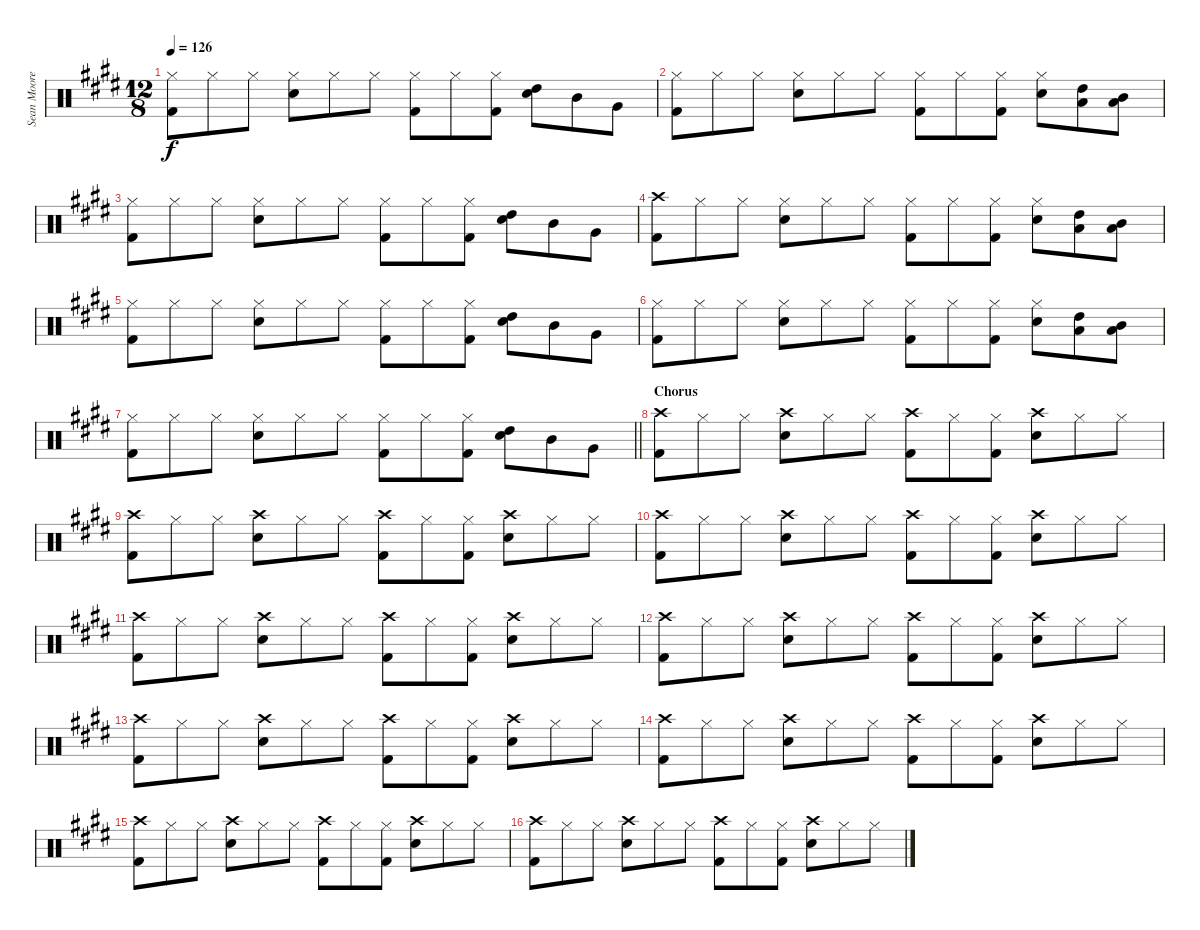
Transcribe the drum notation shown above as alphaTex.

\track ("Sean Moore (Drums)" "Sean Moore") {instrument percussion}
\staff {score}
\articulation defaults
\ts (12 8)
\tempo 126
\clef neutral
\ks e
("Hi-Hat (closed)" "Kick (hit) 2").8{dy f} "Hi-Hat (closed)".8 "Hi-Hat (closed)".8 ("Hi-Hat (closed)" "Electric Snare (hit)").8 "Hi-Hat (closed)".8 "Hi-Hat (closed)".8 ("Hi-Hat (closed)" "Kick (hit) 2").8 "Hi-Hat (closed)".8 ("Hi-Hat (closed)" "Kick (hit) 2").8 ("Electric Snare (hit)" "High Tom (hit)").8 "Mid Tom (hit)".8 "Very Low Tom (hit)".8 |
("Hi-Hat (closed)" "Kick (hit) 2").8 "Hi-Hat (closed)".8 "Hi-Hat (closed)".8 ("Hi-Hat (closed)" "Electric Snare (hit)").8 "Hi-Hat (closed)".8 "Hi-Hat (closed)".8 ("Hi-Hat (closed)" "Kick (hit) 2").8 "Hi-Hat (closed)".8 ("Hi-Hat (closed)" "Kick (hit) 2").8 ("Hi-Hat (closed)" "Electric Snare (hit)").8 ("High Tom (hit)" "Low Floor Tom (hit)").8 ("Mid Tom (hit)" "Low Floor Tom (hit)").8 |
("Hi-Hat (closed)" "Kick (hit) 2").8 "Hi-Hat (closed)".8 "Hi-Hat (closed)".8 ("Hi-Hat (closed)" "Electric Snare (hit)").8 "Hi-Hat (closed)".8 "Hi-Hat (closed)".8 ("Hi-Hat (closed)" "Kick (hit) 2").8 "Hi-Hat (closed)".8 ("Hi-Hat (closed)" "Kick (hit) 2").8 ("Electric Snare (hit)" "High Tom (hit)").8 "Mid Tom (hit)".8 "Very Low Tom (hit)".8 |
("Crash high (hit)" "Kick (hit) 2").8 "Hi-Hat (closed)".8 "Hi-Hat (closed)".8 ("Hi-Hat (closed)" "Electric Snare (hit)").8 "Hi-Hat (closed)".8 "Hi-Hat (closed)".8 ("Hi-Hat (closed)" "Kick (hit) 2").8 "Hi-Hat (closed)".8 ("Hi-Hat (closed)" "Kick (hit) 2").8 ("Hi-Hat (closed)" "Electric Snare (hit)").8 ("High Tom (hit)" "Low Floor Tom (hit)").8 ("Mid Tom (hit)" "Low Floor Tom (hit)").8 |
("Hi-Hat (closed)" "Kick (hit) 2").8 "Hi-Hat (closed)".8 "Hi-Hat (closed)".8 ("Hi-Hat (closed)" "Electric Snare (hit)").8 "Hi-Hat (closed)".8 "Hi-Hat (closed)".8 ("Hi-Hat (closed)" "Kick (hit) 2").8 "Hi-Hat (closed)".8 ("Hi-Hat (closed)" "Kick (hit) 2").8 ("Electric Snare (hit)" "High Tom (hit)").8 "Mid Tom (hit)".8 "Very Low Tom (hit)".8 |
("Hi-Hat (closed)" "Kick (hit) 2").8 "Hi-Hat (closed)".8 "Hi-Hat (closed)".8 ("Hi-Hat (closed)" "Electric Snare (hit)").8 "Hi-Hat (closed)".8 "Hi-Hat (closed)".8 ("Hi-Hat (closed)" "Kick (hit) 2").8 "Hi-Hat (closed)".8 ("Hi-Hat (closed)" "Kick (hit) 2").8 ("Hi-Hat (closed)" "Electric Snare (hit)").8 ("High Tom (hit)" "Low Floor Tom (hit)").8 ("Mid Tom (hit)" "Low Floor Tom (hit)").8 |
\barLineRight lightlight
("Hi-Hat (closed)" "Kick (hit) 2").8 "Hi-Hat (closed)".8 "Hi-Hat (closed)".8 ("Hi-Hat (closed)" "Electric Snare (hit)").8 "Hi-Hat (closed)".8 "Hi-Hat (closed)".8 ("Hi-Hat (closed)" "Kick (hit) 2").8 "Hi-Hat (closed)".8 ("Hi-Hat (closed)" "Kick (hit) 2").8 ("Electric Snare (hit)" "High Tom (hit)").8 "Mid Tom (hit)".8 "Very Low Tom (hit)".8 |
\section ("" "Chorus")
("Crash high (hit)" "Kick (hit) 2").8 "Hi-Hat (closed)".8 "Hi-Hat (closed)".8 ("Crash high (hit)" "Electric Snare (hit)").8 "Hi-Hat (closed)".8 "Hi-Hat (closed)".8 ("Crash high (hit)" "Kick (hit) 2").8 "Hi-Hat (closed)".8 ("Hi-Hat (closed)" "Kick (hit) 2").8 ("Crash high (hit)" "Electric Snare (hit)").8 "Hi-Hat (closed)".8 "Hi-Hat (closed)".8 |
("Crash high (hit)" "Kick (hit) 2").8 "Hi-Hat (closed)".8 "Hi-Hat (closed)".8 ("Crash high (hit)" "Electric Snare (hit)").8 "Hi-Hat (closed)".8 "Hi-Hat (closed)".8 ("Crash high (hit)" "Kick (hit) 2").8 "Hi-Hat (closed)".8 ("Hi-Hat (closed)" "Kick (hit) 2").8 ("Crash high (hit)" "Electric Snare (hit)").8 "Hi-Hat (closed)".8 "Hi-Hat (closed)".8 |
("Crash high (hit)" "Kick (hit) 2").8 "Hi-Hat (closed)".8 "Hi-Hat (closed)".8 ("Crash high (hit)" "Electric Snare (hit)").8 "Hi-Hat (closed)".8 "Hi-Hat (closed)".8 ("Crash high (hit)" "Kick (hit) 2").8 "Hi-Hat (closed)".8 ("Hi-Hat (closed)" "Kick (hit) 2").8 ("Crash high (hit)" "Electric Snare (hit)").8 "Hi-Hat (closed)".8 "Hi-Hat (closed)".8 |
("Crash high (hit)" "Kick (hit) 2").8 "Hi-Hat (closed)".8 "Hi-Hat (closed)".8 ("Crash high (hit)" "Electric Snare (hit)").8 "Hi-Hat (closed)".8 "Hi-Hat (closed)".8 ("Crash high (hit)" "Kick (hit) 2").8 "Hi-Hat (closed)".8 ("Hi-Hat (closed)" "Kick (hit) 2").8 ("Crash high (hit)" "Electric Snare (hit)").8 "Hi-Hat (closed)".8 "Hi-Hat (closed)".8 |
("Crash high (hit)" "Kick (hit) 2").8 "Hi-Hat (closed)".8 "Hi-Hat (closed)".8 ("Crash high (hit)" "Electric Snare (hit)").8 "Hi-Hat (closed)".8 "Hi-Hat (closed)".8 ("Crash high (hit)" "Kick (hit) 2").8 "Hi-Hat (closed)".8 ("Hi-Hat (closed)" "Kick (hit) 2").8 ("Crash high (hit)" "Electric Snare (hit)").8 "Hi-Hat (closed)".8 "Hi-Hat (closed)".8 |
("Crash high (hit)" "Kick (hit) 2").8 "Hi-Hat (closed)".8 "Hi-Hat (closed)".8 ("Crash high (hit)" "Electric Snare (hit)").8 "Hi-Hat (closed)".8 "Hi-Hat (closed)".8 ("Crash high (hit)" "Kick (hit) 2").8 "Hi-Hat (closed)".8 ("Hi-Hat (closed)" "Kick (hit) 2").8 ("Crash high (hit)" "Electric Snare (hit)").8 "Hi-Hat (closed)".8 "Hi-Hat (closed)".8 |
("Crash high (hit)" "Kick (hit) 2").8 "Hi-Hat (closed)".8 "Hi-Hat (closed)".8 ("Crash high (hit)" "Electric Snare (hit)").8 "Hi-Hat (closed)".8 "Hi-Hat (closed)".8 ("Crash high (hit)" "Kick (hit) 2").8 "Hi-Hat (closed)".8 ("Hi-Hat (closed)" "Kick (hit) 2").8 ("Crash high (hit)" "Electric Snare (hit)").8 "Hi-Hat (closed)".8 "Hi-Hat (closed)".8 |
("Crash high (hit)" "Kick (hit) 2").8 "Hi-Hat (closed)".8 "Hi-Hat (closed)".8 ("Crash high (hit)" "Electric Snare (hit)").8 "Hi-Hat (closed)".8 "Hi-Hat (closed)".8 ("Crash high (hit)" "Kick (hit) 2").8 "Hi-Hat (closed)".8 ("Hi-Hat (closed)" "Kick (hit) 2").8 ("Crash high (hit)" "Electric Snare (hit)").8 "Hi-Hat (closed)".8 "Hi-Hat (closed)".8 |
("Crash high (hit)" "Kick (hit) 2").8 "Hi-Hat (closed)".8 "Hi-Hat (closed)".8 ("Crash high (hit)" "Electric Snare (hit)").8 "Hi-Hat (closed)".8 "Hi-Hat (closed)".8 ("Crash high (hit)" "Kick (hit) 2").8 "Hi-Hat (closed)".8 ("Hi-Hat (closed)" "Kick (hit) 2").8 ("Crash high (hit)" "Electric Snare (hit)").8 "Hi-Hat (closed)".8 "Hi-Hat (closed)".8
